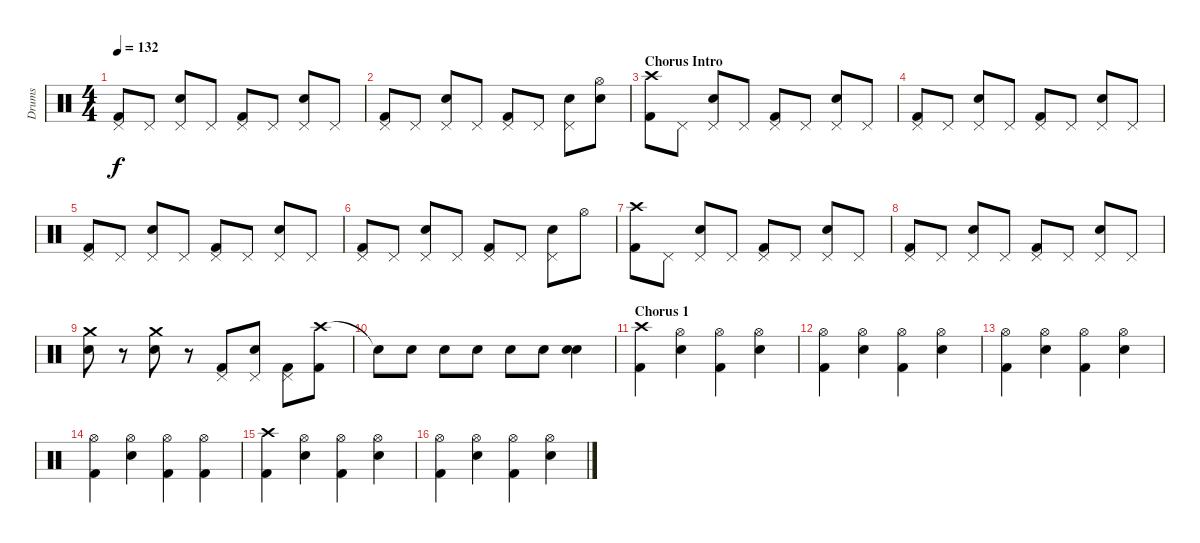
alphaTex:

\track ("Drums" "Drums") {instrument percussion}
\staff {score}
\articulation defaults
\ts (4 4)
\tempo 132
\clef neutral
\ks c
("Pedal Hi-Hat (hit)" "Kick (hit) 2").8{dy f} "Pedal Hi-Hat (hit)".8 ("Pedal Hi-Hat (hit)" "Snare (hit) 2").8 "Pedal Hi-Hat (hit)".8 ("Pedal Hi-Hat (hit)" "Kick (hit) 2").8 "Pedal Hi-Hat (hit)".8 ("Pedal Hi-Hat (hit)" "Snare (hit) 2").8 "Pedal Hi-Hat (hit)".8 |
("Pedal Hi-Hat (hit)" "Kick (hit) 2").8 "Pedal Hi-Hat (hit)".8 ("Pedal Hi-Hat (hit)" "Snare (hit) 2").8 "Pedal Hi-Hat (hit)".8 ("Pedal Hi-Hat (hit)" "Kick (hit) 2").8 "Pedal Hi-Hat (hit)".8 ("Pedal Hi-Hat (hit)" "Snare (hit) 2").8 ("Hi-Hat (open)" "Snare (hit) 2").8 |
\section ("" "Chorus Intro")
("Crash high (hit)" "Kick (hit) 2").8 "Pedal Hi-Hat (hit)".8 ("Pedal Hi-Hat (hit)" "Snare (hit) 2").8 "Pedal Hi-Hat (hit)".8 ("Pedal Hi-Hat (hit)" "Kick (hit) 2").8 "Pedal Hi-Hat (hit)".8 ("Pedal Hi-Hat (hit)" "Snare (hit) 2").8 "Pedal Hi-Hat (hit)".8 |
("Pedal Hi-Hat (hit)" "Kick (hit) 2").8 "Pedal Hi-Hat (hit)".8 ("Pedal Hi-Hat (hit)" "Snare (hit) 2").8 "Pedal Hi-Hat (hit)".8 ("Pedal Hi-Hat (hit)" "Kick (hit) 2").8 "Pedal Hi-Hat (hit)".8 ("Pedal Hi-Hat (hit)" "Snare (hit) 2").8 "Pedal Hi-Hat (hit)".8 |
("Pedal Hi-Hat (hit)" "Kick (hit) 2").8 "Pedal Hi-Hat (hit)".8 ("Pedal Hi-Hat (hit)" "Snare (hit) 2").8 "Pedal Hi-Hat (hit)".8 ("Pedal Hi-Hat (hit)" "Kick (hit) 2").8 "Pedal Hi-Hat (hit)".8 ("Pedal Hi-Hat (hit)" "Snare (hit) 2").8 "Pedal Hi-Hat (hit)".8 |
("Pedal Hi-Hat (hit)" "Kick (hit) 2").8 "Pedal Hi-Hat (hit)".8 ("Pedal Hi-Hat (hit)" "Snare (hit) 2").8 "Pedal Hi-Hat (hit)".8 ("Pedal Hi-Hat (hit)" "Kick (hit) 2").8 "Pedal Hi-Hat (hit)".8 ("Pedal Hi-Hat (hit)" "Snare (hit) 2").8 "Hi-Hat (open)".8 |
("Crash high (hit)" "Kick (hit) 2").8 "Pedal Hi-Hat (hit)".8 ("Pedal Hi-Hat (hit)" "Snare (hit) 2").8 "Pedal Hi-Hat (hit)".8 ("Pedal Hi-Hat (hit)" "Kick (hit) 2").8 "Pedal Hi-Hat (hit)".8 ("Pedal Hi-Hat (hit)" "Snare (hit) 2").8 "Pedal Hi-Hat (hit)".8 |
("Pedal Hi-Hat (hit)" "Kick (hit) 2").8 "Pedal Hi-Hat (hit)".8 ("Pedal Hi-Hat (hit)" "Snare (hit) 2").8 "Pedal Hi-Hat (hit)".8 ("Pedal Hi-Hat (hit)" "Kick (hit) 2").8 "Pedal Hi-Hat (hit)".8 ("Pedal Hi-Hat (hit)" "Snare (hit) 2").8 "Pedal Hi-Hat (hit)".8 |
("Crash medium (hit)" "Snare (hit) 2").8 r.8 ("Crash medium (hit)" "Snare (hit) 2").8 r.8 ("Pedal Hi-Hat (hit)" "Kick (hit) 2").8 ("Pedal Hi-Hat (hit)" "Snare (hit) 2").8 ("Pedal Hi-Hat (hit)" "Kick (hit) 2").8 ("Crash high (hit)" "Kick (hit) 2").8 |
"Snare (hit) 2"{t}.8 "Snare (hit) 2".8 "Snare (hit) 2".8 "Snare (hit) 2".8 "Snare (hit) 2".8 "Snare (hit) 2".8 ("Snare (hit) 2" "Snare (hit) 2").4{bd 120} |
\section ("" "Chorus 1")
("Crash high (hit)" "Kick (hit) 2").4 ("Hi-Hat (open)" "Snare (hit) 2").4 ("Hi-Hat (open)" "Kick (hit) 2").4 ("Hi-Hat (open)" "Snare (hit) 2").4 |
("Hi-Hat (open)" "Kick (hit) 2").4 ("Hi-Hat (open)" "Snare (hit) 2").4 ("Hi-Hat (open)" "Kick (hit) 2").4 ("Hi-Hat (open)" "Snare (hit) 2").4 |
("Hi-Hat (open)" "Kick (hit) 2").4 ("Hi-Hat (open)" "Snare (hit) 2").4 ("Hi-Hat (open)" "Kick (hit) 2").4 ("Hi-Hat (open)" "Snare (hit) 2").4 |
("Hi-Hat (open)" "Kick (hit) 2").4 ("Hi-Hat (open)" "Snare (hit) 2").4 ("Hi-Hat (open)" "Kick (hit) 2").4 ("Hi-Hat (open)" "Kick (hit) 2").4 |
("Crash high (hit)" "Kick (hit) 2").4 ("Hi-Hat (open)" "Snare (hit) 2").4 ("Hi-Hat (open)" "Kick (hit) 2").4 ("Hi-Hat (open)" "Snare (hit) 2").4 |
("Hi-Hat (open)" "Kick (hit) 2").4 ("Hi-Hat (open)" "Snare (hit) 2").4 ("Hi-Hat (open)" "Kick (hit) 2").4 ("Hi-Hat (open)" "Snare (hit) 2").4
